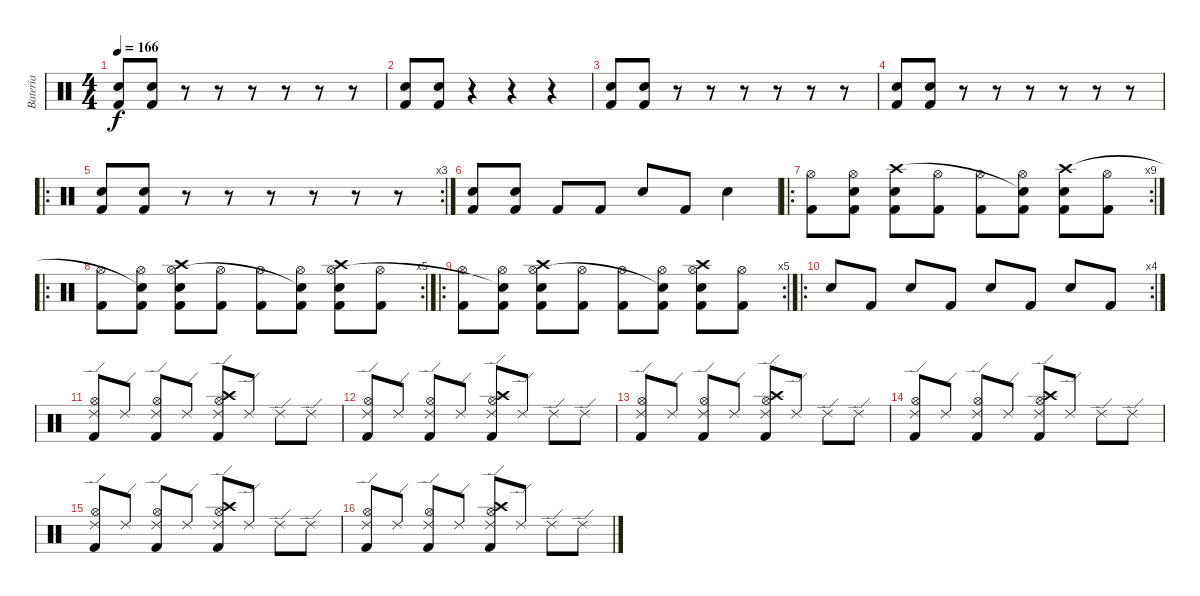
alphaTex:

\track ("Batería" "Batería") {instrument percussion}
\staff {score}
\articulation defaults
\ts (4 4)
\tempo 166
\clef neutral
\ks c
("Electric Snare (hit)" "Kick (hit) 2").8{dy f} ("Electric Snare (hit)" "Kick (hit) 2").8 r.8 r.8 r.8 r.8 r.8 r.8 |
("Electric Snare (hit)" "Kick (hit) 2").8 ("Electric Snare (hit)" "Kick (hit) 2").8 r.4 r.4 r.4 |
("Electric Snare (hit)" "Kick (hit) 2").8 ("Electric Snare (hit)" "Kick (hit) 2").8 r.8 r.8 r.8 r.8 r.8 r.8 |
("Electric Snare (hit)" "Kick (hit) 2").8 ("Electric Snare (hit)" "Kick (hit) 2").8 r.8 r.8 r.8 r.8 r.8 r.8 |
\ro
\rc 3
("Electric Snare (hit)" "Kick (hit) 2").8 ("Electric Snare (hit)" "Kick (hit) 2").8 r.8 r.8 r.8 r.8 r.8 r.8 |
("Kick (hit) 2" "Electric Snare (hit)").8 ("Kick (hit) 2" "Electric Snare (hit)").8 "Kick (hit) 2".8 "Kick (hit) 2".8 "Electric Snare (hit)".8 "Kick (hit) 2".8 "Electric Snare (hit)".4 |
\ro
\rc 9
("Kick (hit) 2" "Hi-Hat (open)").8 ("Kick (hit) 2" "Hi-Hat (open)" "Snare (hit)").8 ("Kick (hit) 2" "Electric Snare (hit)" "Crash high (hit)").8 ("Kick (hit) 2" "Hi-Hat (open)").8 ("Kick (hit) 2" "Hi-Hat (open)").8 ("Kick (hit) 2" "Hi-Hat (open)" "Snare (hit)"{t}).8 ("Kick (hit) 2" "Electric Snare (hit)" "Crash high (hit)").8 ("Kick (hit) 2" "Hi-Hat (open)").8 |
\ro
\rc 5
("Kick (hit) 2" "Hi-Hat (open)").8 ("Kick (hit) 2" "Hi-Hat (open)" "Snare (hit)"{t}).8 ("Kick (hit) 2" "Electric Snare (hit)" "Hi-Hat (open)" "Crash high (hit)").8 ("Kick (hit) 2" "Hi-Hat (open)").8 ("Kick (hit) 2" "Hi-Hat (open)").8 ("Kick (hit) 2" "Hi-Hat (open)" "Snare (hit)"{t}).8 ("Kick (hit) 2" "Electric Snare (hit)" "Hi-Hat (open)" "Crash high (hit)").8 ("Kick (hit) 2" "Hi-Hat (open)").8 |
\ro
\rc 5
("Kick (hit) 2" "Hi-Hat (open)").8 ("Kick (hit) 2" "Hi-Hat (open)" "Snare (hit)"{t}).8 ("Kick (hit) 2" "Electric Snare (hit)" "Hi-Hat (open)" "Crash high (hit)").8 ("Kick (hit) 2" "Hi-Hat (open)").8 ("Kick (hit) 2" "Hi-Hat (open)").8 ("Kick (hit) 2" "Hi-Hat (open)" "Snare (hit)"{t}).8 ("Kick (hit) 2" "Electric Snare (hit)" "Hi-Hat (open)" "Crash high (hit)").8 ("Kick (hit) 2" "Hi-Hat (open)").8 |
\ro
\rc 4 "Electric Snare (hit)".8 "Kick (hit) 2".8 "Electric Snare (hit)".8 "Kick (hit) 2".8 "Electric Snare (hit)".8 "Kick (hit) 2".8 "Electric Snare (hit)".8 "Kick (hit) 2".8
|
("Kick (hit) 2" "Hi-Hat (open)" "Ride (edge) 2").8 "Ride (edge) 2".8 ("Kick (hit) 2" "Hi-Hat (open)" "Ride (edge) 2").8 "Ride (edge) 2".8 ("Kick (hit) 2" "Hi-Hat (open)" "Crash high (hit)" "Ride (edge) 2").8 "Ride (edge) 2".8 "Ride (edge) 2".8 "Ride (edge) 2".8 |
("Kick (hit) 2" "Hi-Hat (open)" "Ride (edge) 2").8 "Ride (edge) 2".8 ("Kick (hit) 2" "Hi-Hat (open)" "Ride (edge) 2").8 "Ride (edge) 2".8 ("Kick (hit) 2" "Hi-Hat (open)" "Crash high (hit)" "Ride (edge) 2").8 "Ride (edge) 2".8 "Ride (edge) 2".8 "Ride (edge) 2".8 |
("Kick (hit) 2" "Hi-Hat (open)" "Ride (edge) 2").8 "Ride (edge) 2".8 ("Kick (hit) 2" "Hi-Hat (open)" "Ride (edge) 2").8 "Ride (edge) 2".8 ("Kick (hit) 2" "Hi-Hat (open)" "Crash high (hit)" "Ride (edge) 2").8 "Ride (edge) 2".8 "Ride (edge) 2".8 "Ride (edge) 2".8 |
("Kick (hit) 2" "Hi-Hat (open)" "Ride (edge) 2").8 "Ride (edge) 2".8 ("Kick (hit) 2" "Hi-Hat (open)" "Ride (edge) 2").8 "Ride (edge) 2".8 ("Kick (hit) 2" "Hi-Hat (open)" "Crash high (hit)" "Ride (edge) 2").8 "Ride (edge) 2".8 "Ride (edge) 2".8 "Ride (edge) 2".8 |
("Kick (hit) 2" "Hi-Hat (open)" "Ride (edge) 2").8 "Ride (edge) 2".8 ("Kick (hit) 2" "Hi-Hat (open)" "Ride (edge) 2").8 "Ride (edge) 2".8 ("Kick (hit) 2" "Hi-Hat (open)" "Crash high (hit)" "Ride (edge) 2").8 "Ride (edge) 2".8 "Ride (edge) 2".8 "Ride (edge) 2".8 |
("Kick (hit) 2" "Hi-Hat (open)" "Ride (edge) 2").8 "Ride (edge) 2".8 ("Kick (hit) 2" "Hi-Hat (open)" "Ride (edge) 2").8 "Ride (edge) 2".8 ("Kick (hit) 2" "Hi-Hat (open)" "Crash high (hit)" "Ride (edge) 2").8 "Ride (edge) 2".8 "Ride (edge) 2".8 "Ride (edge) 2".8
